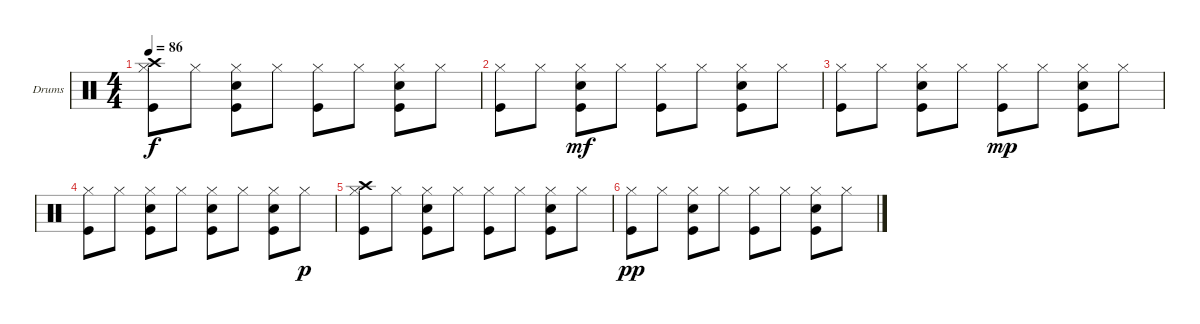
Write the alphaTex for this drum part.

\bracketExtendMode groupsimilarinstruments
\firstSystemTrackNameOrientation horizontal
\otherSystemsTrackNameOrientation horizontal
\track ("Ударные" "Drums") {instrument percussion}
\staff {score}
\articulation defaults
\ts (4 4)
\tempo 86
\clef neutral
\ks c
("Hi-Hat (closed)" "Crash high (hit)" "Kick (hit)").8{dy f} "Hi-Hat (closed)".8 ("Snare (hit) 2" "Hi-Hat (closed)" "Kick (hit)").8 "Hi-Hat (closed)".8 ("Hi-Hat (closed)" "Kick (hit)").8 "Hi-Hat (closed)".8 ("Snare (hit) 2" "Hi-Hat (closed)" "Kick (hit)").8 "Hi-Hat (closed)".8 |
("Hi-Hat (closed)" "Kick (hit)").8 "Hi-Hat (closed)".8 ("Snare (hit) 2" "Hi-Hat (closed)" "Kick (hit)").8{dy mf} "Hi-Hat (closed)".8 ("Hi-Hat (closed)" "Kick (hit)").8 "Hi-Hat (closed)".8 ("Snare (hit) 2" "Hi-Hat (closed)" "Kick (hit)").8 "Hi-Hat (closed)".8 |
("Hi-Hat (closed)" "Kick (hit)").8 "Hi-Hat (closed)".8 ("Snare (hit) 2" "Hi-Hat (closed)" "Kick (hit)").8 "Hi-Hat (closed)".8 ("Hi-Hat (closed)" "Kick (hit)").8{dy mp} "Hi-Hat (closed)".8 ("Snare (hit) 2" "Hi-Hat (closed)" "Kick (hit)").8 "Hi-Hat (closed)".8 |
("Hi-Hat (closed)" "Kick (hit)").8 "Hi-Hat (closed)".8 ("Snare (hit) 2" "Hi-Hat (closed)" "Kick (hit)").8 "Hi-Hat (closed)".8 ("Hi-Hat (closed)" "Kick (hit)" "Snare (hit) 2").8 "Hi-Hat (closed)".8 ("Snare (hit) 2" "Hi-Hat (closed)" "Kick (hit)").8 "Hi-Hat (closed)".8{dy p} |
("Hi-Hat (closed)" "Crash high (hit)" "Kick (hit)").8 "Hi-Hat (closed)".8 ("Snare (hit) 2" "Hi-Hat (closed)" "Kick (hit)").8 "Hi-Hat (closed)".8 ("Hi-Hat (closed)" "Kick (hit)").8 "Hi-Hat (closed)".8 ("Snare (hit) 2" "Hi-Hat (closed)" "Kick (hit)").8 "Hi-Hat (closed)".8 |
("Hi-Hat (closed)" "Kick (hit)").8{dy pp} "Hi-Hat (closed)".8 ("Snare (hit) 2" "Hi-Hat (closed)" "Kick (hit)").8 "Hi-Hat (closed)".8 ("Hi-Hat (closed)" "Kick (hit)").8 "Hi-Hat (closed)".8 ("Snare (hit) 2" "Hi-Hat (closed)" "Kick (hit)").8 "Hi-Hat (closed)".8
